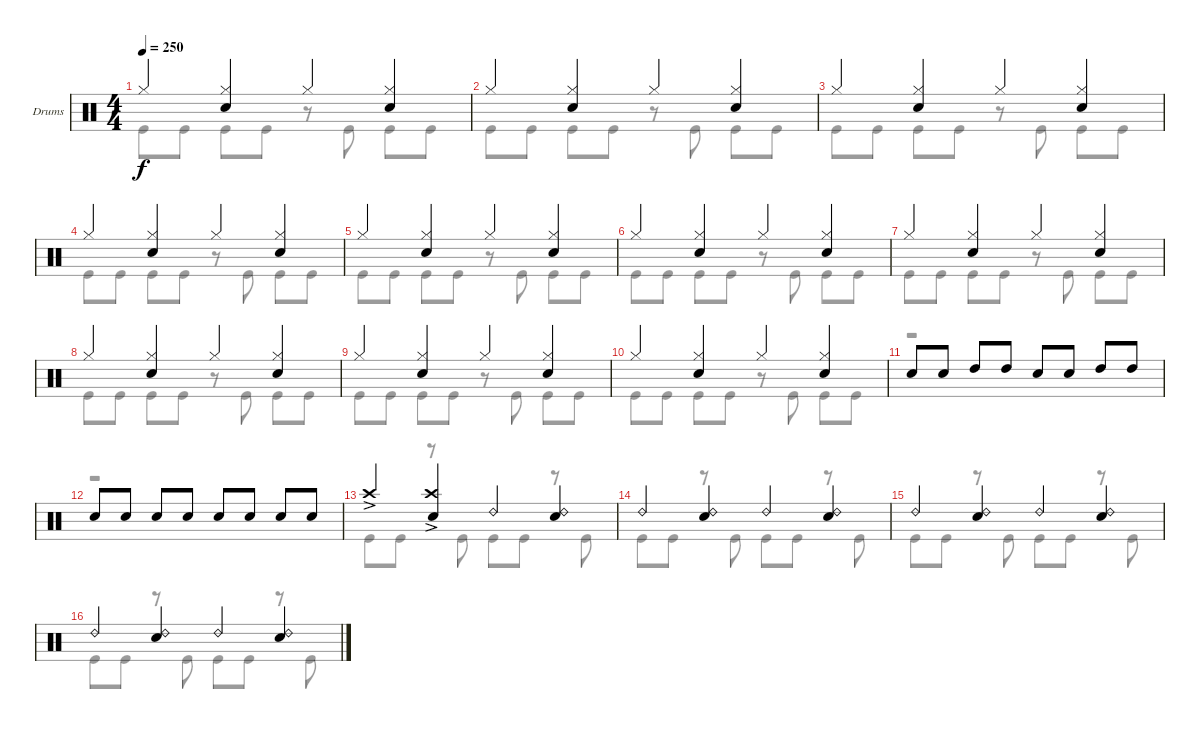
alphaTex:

\bracketExtendMode groupsimilarinstruments
\firstSystemTrackNameOrientation horizontal
\otherSystemsTrackNameOrientation horizontal
\track ("Drumkit" "Drums") {instrument percussion}
\staff {score}
\articulation defaults
\voice
\ts (4 4)
\tempo 250
\clef neutral
\ks c "Hi-Hat (closed)".4{dy f}
("Hi-Hat (closed)" "Snare (hit) 2").4 "Hi-Hat (closed)".4 ("Hi-Hat (closed)" "Snare (hit) 2").4 |
"Hi-Hat (closed)".4 ("Hi-Hat (closed)" "Snare (hit) 2").4 "Hi-Hat (closed)".4 ("Hi-Hat (closed)" "Snare (hit) 2").4 |
"Hi-Hat (closed)".4 ("Hi-Hat (closed)" "Snare (hit) 2").4 "Hi-Hat (closed)".4 ("Hi-Hat (closed)" "Snare (hit) 2").4 |
"Hi-Hat (closed)".4 ("Hi-Hat (closed)" "Snare (hit) 2").4 "Hi-Hat (closed)".4 ("Hi-Hat (closed)" "Snare (hit) 2").4 |
"Hi-Hat (closed)".4 ("Hi-Hat (closed)" "Snare (hit) 2").4 "Hi-Hat (closed)".4 ("Hi-Hat (closed)" "Snare (hit) 2").4 |
"Hi-Hat (closed)".4 ("Hi-Hat (closed)" "Snare (hit) 2").4 "Hi-Hat (closed)".4 ("Hi-Hat (closed)" "Snare (hit) 2").4 |
"Hi-Hat (closed)".4 ("Hi-Hat (closed)" "Snare (hit) 2").4 "Hi-Hat (closed)".4 ("Hi-Hat (closed)" "Snare (hit) 2").4 |
"Hi-Hat (closed)".4 ("Hi-Hat (closed)" "Snare (hit) 2").4 "Hi-Hat (closed)".4 ("Hi-Hat (closed)" "Snare (hit) 2").4 |
"Hi-Hat (closed)".4 ("Hi-Hat (closed)" "Snare (hit) 2").4 "Hi-Hat (closed)".4 ("Hi-Hat (closed)" "Snare (hit) 2").4 |
"Hi-Hat (closed)".4 ("Hi-Hat (closed)" "Snare (hit) 2").4 "Hi-Hat (closed)".4 ("Hi-Hat (closed)" "Snare (hit) 2").4 |
"Snare (hit) 2".8 "Snare (hit) 2".8 "High Tom (hit)".8 "High Tom (hit)".8 "Snare (hit) 2".8 "Snare (hit) 2".8 "High Tom (hit)".8 "High Tom (hit)".8 |
"Snare (hit) 2".8 "Snare (hit) 2".8 "Snare (hit) 2".8 "Snare (hit) 2".8 "Snare (hit) 2".8 "Snare (hit) 2".8 "Snare (hit) 2".8 "Snare (hit) 2".8 |
"Crash high (hit)"{ac}.4 ("Crash high (hit)"{ac} "Snare (hit) 2").4 "Ride (bell) 2".4 ("Ride (bell) 2" "Snare (hit) 2").4 |
"Ride (bell) 2".4 ("Ride (bell) 2" "Snare (hit) 2").4 "Ride (bell) 2".4 ("Ride (bell) 2" "Snare (hit) 2").4 |
"Ride (bell) 2".4 ("Ride (bell) 2" "Snare (hit) 2").4 "Ride (bell) 2".4 ("Ride (bell) 2" "Snare (hit) 2").4 |
"Ride (bell) 2".4 ("Ride (bell) 2" "Snare (hit) 2").4 "Ride (bell) 2".4 ("Ride (bell) 2" "Snare (hit) 2").4
\voice
\clef neutral
\ottava regular
\simile none
\ks c "Kick (hit)".8{dy f} "Kick (hit)".8 "Kick (hit)".8 "Kick (hit)".8
r.8 "Kick (hit)".8 "Kick (hit)".8 "Kick (hit)".8 |
"Kick (hit)".8 "Kick (hit)".8 "Kick (hit)".8 "Kick (hit)".8 r.8 "Kick (hit)".8 "Kick (hit)".8 "Kick (hit)".8 |
"Kick (hit)".8 "Kick (hit)".8 "Kick (hit)".8 "Kick (hit)".8 r.8 "Kick (hit)".8 "Kick (hit)".8 "Kick (hit)".8 |
"Kick (hit)".8 "Kick (hit)".8 "Kick (hit)".8 "Kick (hit)".8 r.8 "Kick (hit)".8 "Kick (hit)".8 "Kick (hit)".8 |
"Kick (hit)".8 "Kick (hit)".8 "Kick (hit)".8 "Kick (hit)".8 r.8 "Kick (hit)".8 "Kick (hit)".8 "Kick (hit)".8 |
"Kick (hit)".8 "Kick (hit)".8 "Kick (hit)".8 "Kick (hit)".8 r.8 "Kick (hit)".8 "Kick (hit)".8 "Kick (hit)".8 |
"Kick (hit)".8 "Kick (hit)".8 "Kick (hit)".8 "Kick (hit)".8 r.8 "Kick (hit)".8 "Kick (hit)".8 "Kick (hit)".8 |
"Kick (hit)".8 "Kick (hit)".8 "Kick (hit)".8 "Kick (hit)".8 r.8 "Kick (hit)".8 "Kick (hit)".8 "Kick (hit)".8 |
"Kick (hit)".8 "Kick (hit)".8 "Kick (hit)".8 "Kick (hit)".8 r.8 "Kick (hit)".8 "Kick (hit)".8 "Kick (hit)".8 |
"Kick (hit)".8 "Kick (hit)".8 "Kick (hit)".8 "Kick (hit)".8 r.8 "Kick (hit)".8 "Kick (hit)".8 "Kick (hit)".8 |
r.1 |
r.1 |
"Kick (hit)".8 "Kick (hit)".8 r.8 "Kick (hit)".8 "Kick (hit)".8 "Kick (hit)".8 r.8 "Kick (hit)".8 |
"Kick (hit)".8 "Kick (hit)".8 r.8 "Kick (hit)".8 "Kick (hit)".8 "Kick (hit)".8 r.8 "Kick (hit)".8 |
"Kick (hit)".8 "Kick (hit)".8 r.8 "Kick (hit)".8 "Kick (hit)".8 "Kick (hit)".8 r.8 "Kick (hit)".8 |
"Kick (hit)".8 "Kick (hit)".8 r.8 "Kick (hit)".8 "Kick (hit)".8 "Kick (hit)".8 r.8 "Kick (hit)".8
